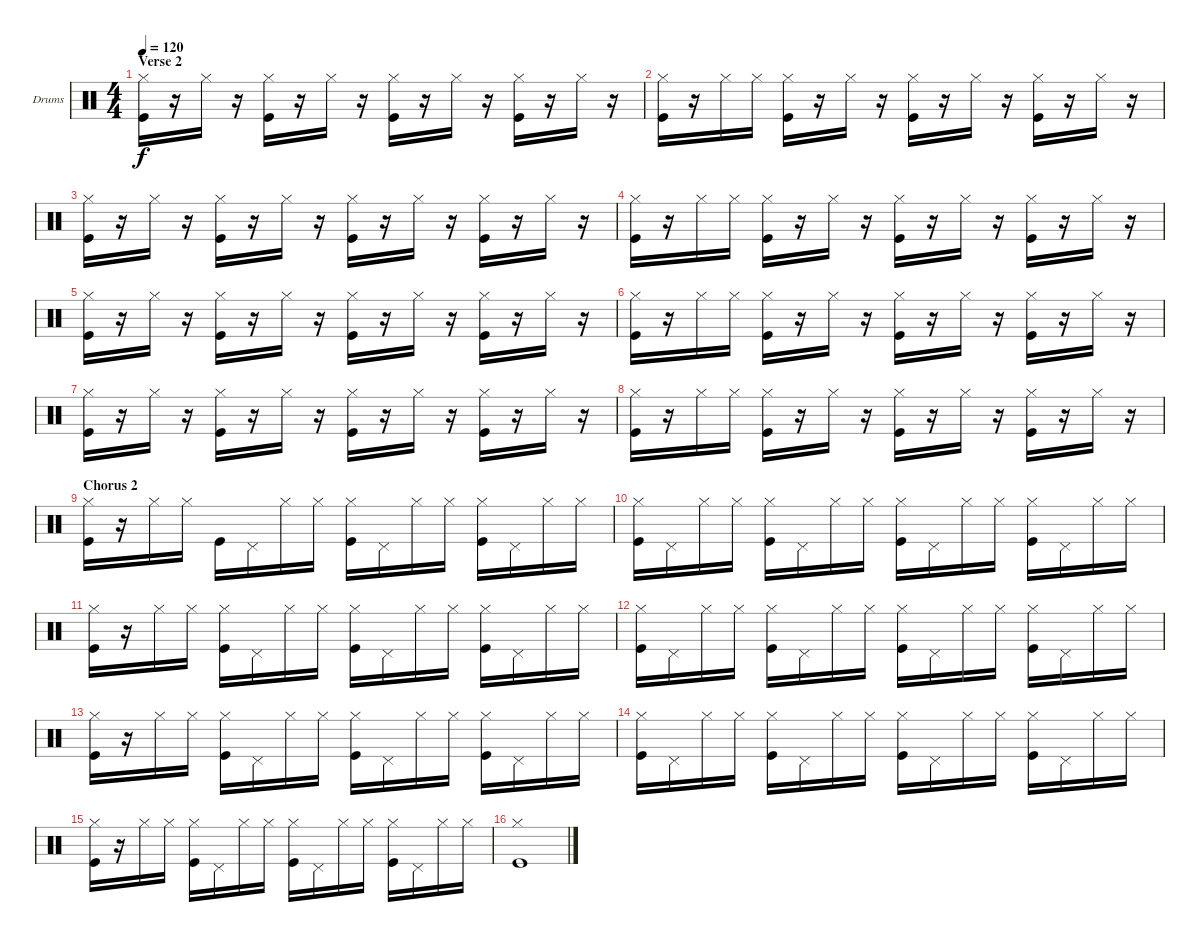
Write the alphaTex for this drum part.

\defaultSystemsLayout 4
\bracketExtendMode groupsimilarinstruments
\firstSystemTrackNameOrientation horizontal
\otherSystemsTrackNameOrientation horizontal
\track ("Drums" "Drums") {instrument percussion}
\staff {score}
\articulation defaults
\ts (4 4)
\section ("" "Verse 2")
\tempo 120
\clef neutral
\ks c
("Hi-Hat (closed)" "Kick (hit)").16{dy f} r.16 "Hi-Hat (closed)".16 r.16 ("Kick (hit)" "Hi-Hat (closed)").16 r.16 "Hi-Hat (closed)".16 r.16 ("Kick (hit)" "Hi-Hat (closed)").16 r.16 "Hi-Hat (closed)".16 r.16 ("Kick (hit)" "Hi-Hat (closed)").16 r.16 "Hi-Hat (closed)".16 r.16 |
("Hi-Hat (closed)" "Kick (hit)").16 r.16 "Hi-Hat (closed)".16 "Hi-Hat (closed)".16 ("Kick (hit)" "Hi-Hat (closed)").16 r.16 "Hi-Hat (closed)".16 r.16 ("Kick (hit)" "Hi-Hat (closed)").16 r.16 "Hi-Hat (closed)".16 r.16 ("Kick (hit)" "Hi-Hat (closed)").16 r.16 "Hi-Hat (closed)".16 r.16 |
("Hi-Hat (closed)" "Kick (hit)").16 r.16 "Hi-Hat (closed)".16 r.16 ("Kick (hit)" "Hi-Hat (closed)").16 r.16 "Hi-Hat (closed)".16 r.16 ("Kick (hit)" "Hi-Hat (closed)").16 r.16 "Hi-Hat (closed)".16 r.16 ("Kick (hit)" "Hi-Hat (closed)").16 r.16 "Hi-Hat (closed)".16 r.16 |
("Hi-Hat (closed)" "Kick (hit)").16 r.16 "Hi-Hat (closed)".16 "Hi-Hat (closed)".16 ("Kick (hit)" "Hi-Hat (closed)").16 r.16 "Hi-Hat (closed)".16 r.16 ("Kick (hit)" "Hi-Hat (closed)").16 r.16 "Hi-Hat (closed)".16 r.16 ("Kick (hit)" "Hi-Hat (closed)").16 r.16 "Hi-Hat (closed)".16 r.16 |
("Hi-Hat (closed)" "Kick (hit)").16 r.16 "Hi-Hat (closed)".16 r.16 ("Kick (hit)" "Hi-Hat (closed)").16 r.16 "Hi-Hat (closed)".16 r.16 ("Kick (hit)" "Hi-Hat (closed)").16 r.16 "Hi-Hat (closed)".16 r.16 ("Kick (hit)" "Hi-Hat (closed)").16 r.16 "Hi-Hat (closed)".16 r.16 |
("Hi-Hat (closed)" "Kick (hit)").16 r.16 "Hi-Hat (closed)".16 "Hi-Hat (closed)".16 ("Kick (hit)" "Hi-Hat (closed)").16 r.16 "Hi-Hat (closed)".16 r.16 ("Kick (hit)" "Hi-Hat (closed)").16 r.16 "Hi-Hat (closed)".16 r.16 ("Kick (hit)" "Hi-Hat (closed)").16 r.16 "Hi-Hat (closed)".16 r.16 |
("Hi-Hat (closed)" "Kick (hit)").16 r.16 "Hi-Hat (closed)".16 r.16 ("Kick (hit)" "Hi-Hat (closed)").16 r.16 "Hi-Hat (closed)".16 r.16 ("Kick (hit)" "Hi-Hat (closed)").16 r.16 "Hi-Hat (closed)".16 r.16 ("Kick (hit)" "Hi-Hat (closed)").16 r.16 "Hi-Hat (closed)".16 r.16 |
("Hi-Hat (closed)" "Kick (hit)").16 r.16 "Hi-Hat (closed)".16 "Hi-Hat (closed)".16 ("Kick (hit)" "Hi-Hat (closed)").16 r.16 "Hi-Hat (closed)".16 r.16 ("Kick (hit)" "Hi-Hat (closed)").16 r.16 "Hi-Hat (closed)".16 r.16 ("Kick (hit)" "Hi-Hat (closed)").16 r.16 "Hi-Hat (closed)".16 r.16 |
\section ("" "Chorus 2")
("Hi-Hat (closed)" "Kick (hit)").16 r.16 "Hi-Hat (closed)".16 "Hi-Hat (closed)".16 "Kick (hit)".16 "Pedal Hi-Hat (hit)".16 "Hi-Hat (closed)".16 "Hi-Hat (closed)".16 ("Kick (hit)" "Hi-Hat (closed)").16 "Pedal Hi-Hat (hit)".16 "Hi-Hat (closed)".16 "Hi-Hat (closed)".16 ("Kick (hit)" "Hi-Hat (closed)").16 "Pedal Hi-Hat (hit)".16 "Hi-Hat (closed)".16 "Hi-Hat (closed)".16 |
("Hi-Hat (closed)" "Kick (hit)").16 "Pedal Hi-Hat (hit)".16 "Hi-Hat (closed)".16 "Hi-Hat (closed)".16 ("Kick (hit)" "Hi-Hat (closed)").16 "Pedal Hi-Hat (hit)".16 "Hi-Hat (closed)".16 "Hi-Hat (closed)".16 ("Kick (hit)" "Hi-Hat (closed)").16 "Pedal Hi-Hat (hit)".16 "Hi-Hat (closed)".16 "Hi-Hat (closed)".16 ("Kick (hit)" "Hi-Hat (closed)").16 "Pedal Hi-Hat (hit)".16 "Hi-Hat (closed)".16 "Hi-Hat (closed)".16 |
("Hi-Hat (closed)" "Kick (hit)").16 r.16 "Hi-Hat (closed)".16 "Hi-Hat (closed)".16 ("Kick (hit)" "Hi-Hat (closed)").16 "Pedal Hi-Hat (hit)".16 "Hi-Hat (closed)".16 "Hi-Hat (closed)".16 ("Kick (hit)" "Hi-Hat (closed)").16 "Pedal Hi-Hat (hit)".16 "Hi-Hat (closed)".16 "Hi-Hat (closed)".16 ("Kick (hit)" "Hi-Hat (closed)").16 "Pedal Hi-Hat (hit)".16 "Hi-Hat (closed)".16 "Hi-Hat (closed)".16 |
("Hi-Hat (closed)" "Kick (hit)").16 "Pedal Hi-Hat (hit)".16 "Hi-Hat (closed)".16 "Hi-Hat (closed)".16 ("Kick (hit)" "Hi-Hat (closed)").16 "Pedal Hi-Hat (hit)".16 "Hi-Hat (closed)".16 "Hi-Hat (closed)".16 ("Kick (hit)" "Hi-Hat (closed)").16 "Pedal Hi-Hat (hit)".16 "Hi-Hat (closed)".16 "Hi-Hat (closed)".16 ("Kick (hit)" "Hi-Hat (closed)").16 "Pedal Hi-Hat (hit)".16 "Hi-Hat (closed)".16 "Hi-Hat (closed)".16 |
("Hi-Hat (closed)" "Kick (hit)").16 r.16 "Hi-Hat (closed)".16 "Hi-Hat (closed)".16 ("Kick (hit)" "Hi-Hat (closed)").16 "Pedal Hi-Hat (hit)".16 "Hi-Hat (closed)".16 "Hi-Hat (closed)".16 ("Kick (hit)" "Hi-Hat (closed)").16 "Pedal Hi-Hat (hit)".16 "Hi-Hat (closed)".16 "Hi-Hat (closed)".16 ("Kick (hit)" "Hi-Hat (closed)").16 "Pedal Hi-Hat (hit)".16 "Hi-Hat (closed)".16 "Hi-Hat (closed)".16 |
("Hi-Hat (closed)" "Kick (hit)").16 "Pedal Hi-Hat (hit)".16 "Hi-Hat (closed)".16 "Hi-Hat (closed)".16 ("Kick (hit)" "Hi-Hat (closed)").16 "Pedal Hi-Hat (hit)".16 "Hi-Hat (closed)".16 "Hi-Hat (closed)".16 ("Kick (hit)" "Hi-Hat (closed)").16 "Pedal Hi-Hat (hit)".16 "Hi-Hat (closed)".16 "Hi-Hat (closed)".16 ("Kick (hit)" "Hi-Hat (closed)").16 "Pedal Hi-Hat (hit)".16 "Hi-Hat (closed)".16 "Hi-Hat (closed)".16 |
("Hi-Hat (closed)" "Kick (hit)").16 r.16 "Hi-Hat (closed)".16 "Hi-Hat (closed)".16 ("Kick (hit)" "Hi-Hat (closed)").16 "Pedal Hi-Hat (hit)".16 "Hi-Hat (closed)".16 "Hi-Hat (closed)".16 ("Kick (hit)" "Hi-Hat (closed)").16 "Pedal Hi-Hat (hit)".16 "Hi-Hat (closed)".16 "Hi-Hat (closed)".16 ("Kick (hit)" "Hi-Hat (closed)").16 "Pedal Hi-Hat (hit)".16 "Hi-Hat (closed)".16 "Hi-Hat (closed)".16 |
("Hi-Hat (closed)" "Kick (hit)").1
